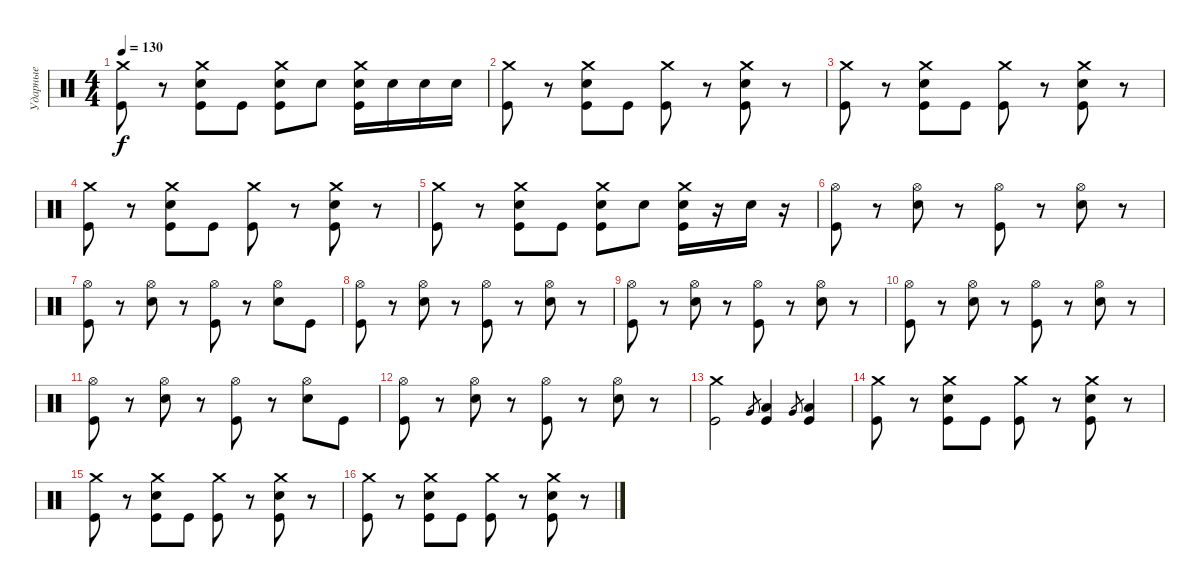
\track ("Ударные" "Ударные") {instrument percussion}
\staff {score}
\articulation defaults
\ts (4 4)
\tempo 130
\clef neutral
\ks c
("Crash medium (hit)" "Kick (hit)").8{dy f} r.8 ("Crash medium (hit)" "Electric Snare (hit)" "Kick (hit)").8 "Kick (hit)".8 ("Crash medium (hit)" "Electric Snare (hit)" "Kick (hit)").8 "Electric Snare (hit)".8 ("Crash medium (hit)" "Electric Snare (hit)" "Kick (hit)").16 "Electric Snare (hit)".16 "Electric Snare (hit)".16 "Electric Snare (hit)".16 |
("Crash medium (hit)" "Kick (hit)").8 r.8 ("Crash medium (hit)" "Electric Snare (hit)" "Kick (hit)").8 "Kick (hit)".8 ("Crash medium (hit)" "Kick (hit)").8 r.8 ("Crash medium (hit)" "Electric Snare (hit)" "Kick (hit)").8 r.8 |
("Crash medium (hit)" "Kick (hit)").8 r.8 ("Crash medium (hit)" "Electric Snare (hit)" "Kick (hit)").8 "Kick (hit)".8 ("Crash medium (hit)" "Kick (hit)").8 r.8 ("Crash medium (hit)" "Electric Snare (hit)" "Kick (hit)").8 r.8 |
("Crash medium (hit)" "Kick (hit)").8 r.8 ("Crash medium (hit)" "Electric Snare (hit)" "Kick (hit)").8 "Kick (hit)".8 ("Crash medium (hit)" "Kick (hit)").8 r.8 ("Crash medium (hit)" "Electric Snare (hit)" "Kick (hit)").8 r.8 |
("Crash medium (hit)" "Kick (hit)").8 r.8 ("Crash medium (hit)" "Electric Snare (hit)" "Kick (hit)").8 "Kick (hit)".8 ("Crash medium (hit)" "Electric Snare (hit)" "Kick (hit)").8 "Electric Snare (hit)".8 ("Crash medium (hit)" "Electric Snare (hit)" "Kick (hit)").16 r.16 "Electric Snare (hit)".16 r.16 |
("Hi-Hat (open)" "Kick (hit)").8 r.8 ("Hi-Hat (open)" "Electric Snare (hit)").8 r.8 ("Hi-Hat (open)" "Kick (hit)").8 r.8 ("Hi-Hat (open)" "Electric Snare (hit)").8 r.8 |
("Hi-Hat (open)" "Kick (hit)").8 r.8 ("Hi-Hat (open)" "Electric Snare (hit)").8 r.8 ("Hi-Hat (open)" "Kick (hit)").8 r.8 ("Hi-Hat (open)" "Electric Snare (hit)").8 "Kick (hit)".8 |
("Hi-Hat (open)" "Kick (hit)").8 r.8 ("Hi-Hat (open)" "Electric Snare (hit)").8 r.8 ("Hi-Hat (open)" "Kick (hit)").8 r.8 ("Hi-Hat (open)" "Electric Snare (hit)").8 r.8 |
("Hi-Hat (open)" "Kick (hit)").8 r.8 ("Hi-Hat (open)" "Electric Snare (hit)").8 r.8 ("Hi-Hat (open)" "Kick (hit)").8 r.8 ("Hi-Hat (open)" "Electric Snare (hit)").8 r.8 |
("Hi-Hat (open)" "Kick (hit)").8 r.8 ("Hi-Hat (open)" "Electric Snare (hit)").8 r.8 ("Hi-Hat (open)" "Kick (hit)").8 r.8 ("Hi-Hat (open)" "Electric Snare (hit)").8 r.8 |
("Hi-Hat (open)" "Kick (hit)").8 r.8 ("Hi-Hat (open)" "Electric Snare (hit)").8 r.8 ("Hi-Hat (open)" "Kick (hit)").8 r.8 ("Hi-Hat (open)" "Electric Snare (hit)").8 "Kick (hit)".8 |
("Hi-Hat (open)" "Kick (hit)").8 r.8 ("Hi-Hat (open)" "Electric Snare (hit)").8 r.8 ("Hi-Hat (open)" "Kick (hit)").8 r.8 ("Hi-Hat (open)" "Electric Snare (hit)").8 r.8 |
("Crash medium (hit)" "Kick (hit)").2 "Very Low Tom (hit)".8{gr} ("Low Floor Tom (hit)" "Kick (hit)").4 "Very Low Tom (hit)".8{gr} ("Low Floor Tom (hit)" "Kick (hit)").4 |
("Crash medium (hit)" "Kick (hit)").8 r.8 ("Crash medium (hit)" "Electric Snare (hit)" "Kick (hit)").8 "Kick (hit)".8 ("Crash medium (hit)" "Kick (hit)").8 r.8 ("Crash medium (hit)" "Electric Snare (hit)" "Kick (hit)").8 r.8 |
("Crash medium (hit)" "Kick (hit)").8 r.8 ("Crash medium (hit)" "Electric Snare (hit)" "Kick (hit)").8 "Kick (hit)".8 ("Crash medium (hit)" "Kick (hit)").8 r.8 ("Crash medium (hit)" "Electric Snare (hit)" "Kick (hit)").8 r.8 |
("Crash medium (hit)" "Kick (hit)").8 r.8 ("Crash medium (hit)" "Electric Snare (hit)" "Kick (hit)").8 "Kick (hit)".8 ("Crash medium (hit)" "Kick (hit)").8 r.8 ("Crash medium (hit)" "Electric Snare (hit)" "Kick (hit)").8 r.8
